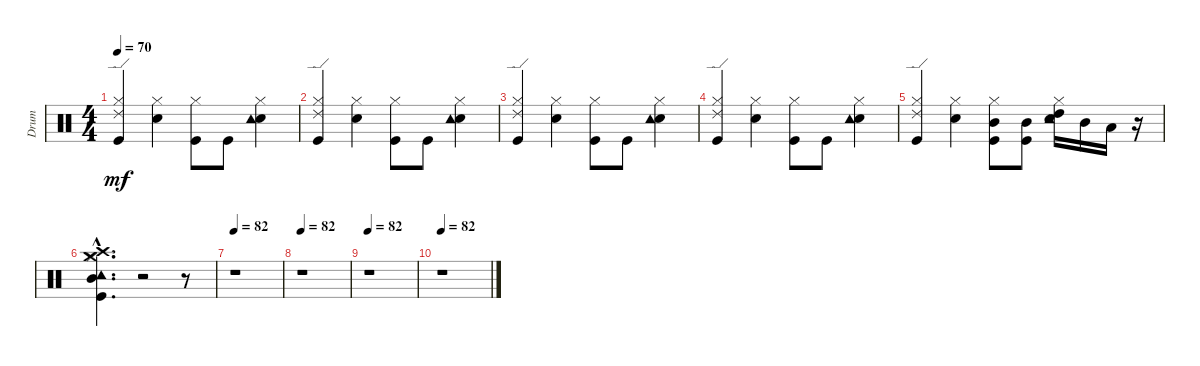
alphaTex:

\track ("Drum" "Drum") {instrument percussion}
\staff {score}
\articulation defaults
\ts (4 4)
\tempo 70
\clef neutral
\ks c
("Ride (edge) 2" "Hi-Hat (closed)" "Kick (hit)").4{dy mf} ("Hi-Hat (closed)" "Electric Snare (hit)").4 ("Hi-Hat (closed)" "Kick (hit)").8 "Kick (hit)".8 ("Electric Snare (hit)" "Tambourine (hit)" "Hi-Hat (closed)").4 |
("Ride (edge) 2" "Hi-Hat (closed)" "Kick (hit)").4 ("Hi-Hat (closed)" "Electric Snare (hit)").4 ("Hi-Hat (closed)" "Kick (hit)").8 "Kick (hit)".8 ("Electric Snare (hit)" "Tambourine (hit)" "Hi-Hat (closed)").4 |
("Ride (edge) 2" "Hi-Hat (closed)" "Kick (hit)").4 ("Hi-Hat (closed)" "Electric Snare (hit)").4 ("Hi-Hat (closed)" "Kick (hit)").8 "Kick (hit)".8 ("Electric Snare (hit)" "Tambourine (hit)" "Hi-Hat (closed)").4 |
("Ride (edge) 2" "Hi-Hat (closed)" "Kick (hit)").4 ("Hi-Hat (closed)" "Electric Snare (hit)").4 ("Hi-Hat (closed)" "Kick (hit)").8 "Kick (hit)".8 ("Electric Snare (hit)" "Tambourine (hit)" "Hi-Hat (closed)").4 |
("Ride (edge) 2" "Hi-Hat (closed)" "Kick (hit)").4 ("Hi-Hat (closed)" "Electric Snare (hit)").4 ("Mid Tom (hit)" "Hi-Hat (closed)" "Kick (hit)").8 ("Mid Tom (hit)" "Kick (hit)").8 ("Electric Snare (hit)" "High Tom (hit)" "Tambourine (hit)" "Hi-Hat (closed)").16 "Mid Tom (hit)".16 "Low Tom (hit)".16 r.16 |
("Mid Tom (hit)" "Crash high (hit)" "Crash medium (hit)" "Tambourine (hit)" "Hi-Hat (closed)" "Kick (hit)"{hac}).4{d} r.2 r.8 |
\tempo 82
r.1 |
\tempo 82
r.1 |
\tempo 82
r.1 |
\tempo 82
r.1
